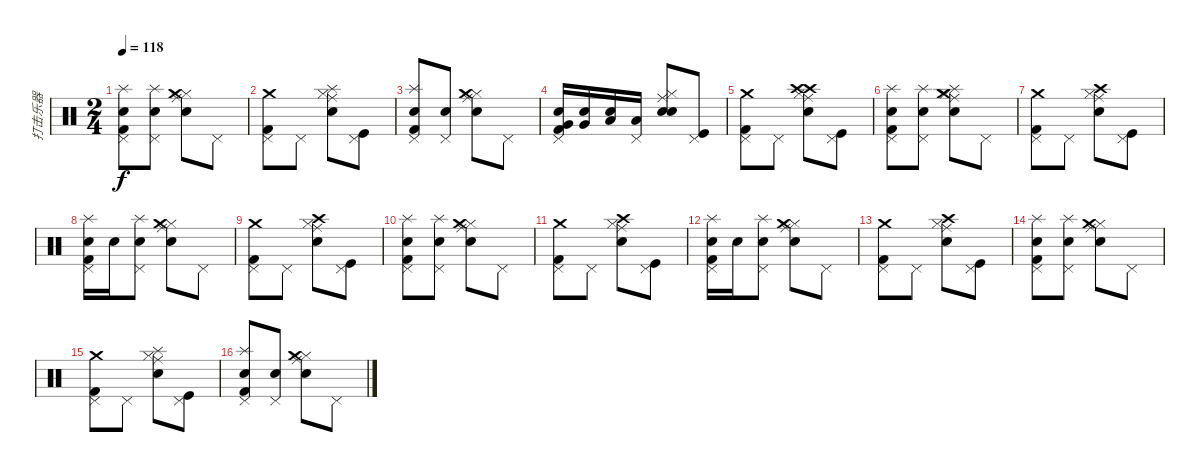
\track ("打击乐器" "打击乐器") {instrument percussion}
\staff {score}
\articulation defaults
\ts (2 4)
\tempo 118
\clef neutral
\ks c
("Snare (hit) 2" "Pedal Hi-Hat (hit)" "Splash (hit)" "Kick (hit) 2").8{dy f} ("Snare (hit) 2" "Pedal Hi-Hat (hit)" "Splash (hit)").8 ("Ride (middle)" "Hi-Hat (closed)" "Crash medium (hit)" "Snare (hit) 2").8 "Pedal Hi-Hat (hit)".8 |
("Pedal Hi-Hat (hit)" "Crash medium (hit)" "Kick (hit) 2").8 "Pedal Hi-Hat (hit)".8 ("Ride (middle)" "Hi-Hat (closed)" "Splash (hit)" "Snare (hit) 2").8 ("Pedal Hi-Hat (hit)" "Kick (hit)").8 |
("Snare (hit) 2" "Pedal Hi-Hat (hit)" "Splash (hit)" "Kick (hit) 2").8 ("Snare (hit) 2" "Pedal Hi-Hat (hit)").8 ("Ride (middle)" "Hi-Hat (closed)" "Crash medium (hit)" "Snare (hit) 2").8 "Pedal Hi-Hat (hit)".8 |
("Very Low Tom (hit)" "Pedal Hi-Hat (hit)" "Electric Snare (hit)" "Kick (hit) 2").16 ("Very Low Tom (hit)" "Electric Snare (hit)").16 ("Low Floor Tom (hit)" "Electric Snare (hit)").16 ("Low Floor Tom (hit)" "Pedal Hi-Hat (hit)").16 ("Ride (middle)" "Hi-Hat (closed)" "Electric Snare (hit)" "Snare (hit) 2").8 ("Pedal Hi-Hat (hit)" "Kick (hit)").8 |
("Pedal Hi-Hat (hit)" "Crash medium (hit)" "Kick (hit) 2").8 "Pedal Hi-Hat (hit)".8 ("Crash high (hit)" "Ride (middle)" "Hi-Hat (closed)" "Crash high (hit)" "Snare (hit) 2").8 ("Pedal Hi-Hat (hit)" "Kick (hit)").8 |
("Snare (hit) 2" "Pedal Hi-Hat (hit)" "Splash (hit)" "Kick (hit) 2").8 ("Snare (hit) 2" "Pedal Hi-Hat (hit)" "Splash (hit)").8 ("Splash (hit)" "Ride (middle)" "Hi-Hat (closed)" "Crash medium (hit)" "Snare (hit) 2").8 "Pedal Hi-Hat (hit)".8 |
("Pedal Hi-Hat (hit)" "Crash medium (hit)" "Kick (hit) 2").8 "Pedal Hi-Hat (hit)".8 ("Ride (middle)" "Hi-Hat (closed)" "Crash high (hit)" "Snare (hit) 2").8 ("Pedal Hi-Hat (hit)" "Kick (hit)").8 |
("Snare (hit) 2" "Pedal Hi-Hat (hit)" "Splash (hit)" "Kick (hit) 2").16 "Snare (hit) 2".16 ("Snare (hit) 2" "Pedal Hi-Hat (hit)" "Splash (hit)").8 ("Ride (middle)" "Hi-Hat (closed)" "Crash medium (hit)" "Snare (hit) 2").8 "Pedal Hi-Hat (hit)".8 |
("Pedal Hi-Hat (hit)" "Crash medium (hit)" "Kick (hit) 2").8 "Pedal Hi-Hat (hit)".8 ("Ride (middle)" "Hi-Hat (closed)" "Crash high (hit)" "Snare (hit) 2").8 ("Pedal Hi-Hat (hit)" "Kick (hit)").8 |
("Snare (hit) 2" "Pedal Hi-Hat (hit)" "Splash (hit)" "Kick (hit) 2").8 ("Snare (hit) 2" "Pedal Hi-Hat (hit)" "Splash (hit)").8 ("Ride (middle)" "Hi-Hat (closed)" "Crash medium (hit)" "Snare (hit) 2").8 "Pedal Hi-Hat (hit)".8 |
("Pedal Hi-Hat (hit)" "Crash medium (hit)" "Kick (hit) 2").8 "Pedal Hi-Hat (hit)".8 ("Ride (middle)" "Hi-Hat (closed)" "Crash high (hit)" "Snare (hit) 2").8 ("Pedal Hi-Hat (hit)" "Kick (hit)").8 |
("Snare (hit) 2" "Pedal Hi-Hat (hit)" "Splash (hit)" "Kick (hit) 2").16 "Snare (hit) 2".16 ("Snare (hit) 2" "Pedal Hi-Hat (hit)" "Splash (hit)").8 ("Ride (middle)" "Hi-Hat (closed)" "Crash medium (hit)" "Snare (hit) 2").8 "Pedal Hi-Hat (hit)".8 |
("Pedal Hi-Hat (hit)" "Crash medium (hit)" "Kick (hit) 2").8 "Pedal Hi-Hat (hit)".8 ("Ride (middle)" "Hi-Hat (closed)" "Crash high (hit)" "Snare (hit) 2").8 ("Pedal Hi-Hat (hit)" "Kick (hit)").8 |
("Snare (hit) 2" "Pedal Hi-Hat (hit)" "Splash (hit)" "Kick (hit) 2").8 ("Snare (hit) 2" "Pedal Hi-Hat (hit)" "Splash (hit)").8 ("Ride (middle)" "Hi-Hat (closed)" "Crash medium (hit)" "Snare (hit) 2").8 "Pedal Hi-Hat (hit)".8 |
("Pedal Hi-Hat (hit)" "Crash medium (hit)" "Kick (hit) 2").8 "Pedal Hi-Hat (hit)".8 ("Ride (middle)" "Hi-Hat (closed)" "Splash (hit)" "Snare (hit) 2").8 ("Pedal Hi-Hat (hit)" "Kick (hit)").8 |
("Snare (hit) 2" "Pedal Hi-Hat (hit)" "Splash (hit)" "Kick (hit) 2").8 ("Snare (hit) 2" "Pedal Hi-Hat (hit)").8 ("Ride (middle)" "Hi-Hat (closed)" "Crash medium (hit)" "Snare (hit) 2").8 "Pedal Hi-Hat (hit)".8
